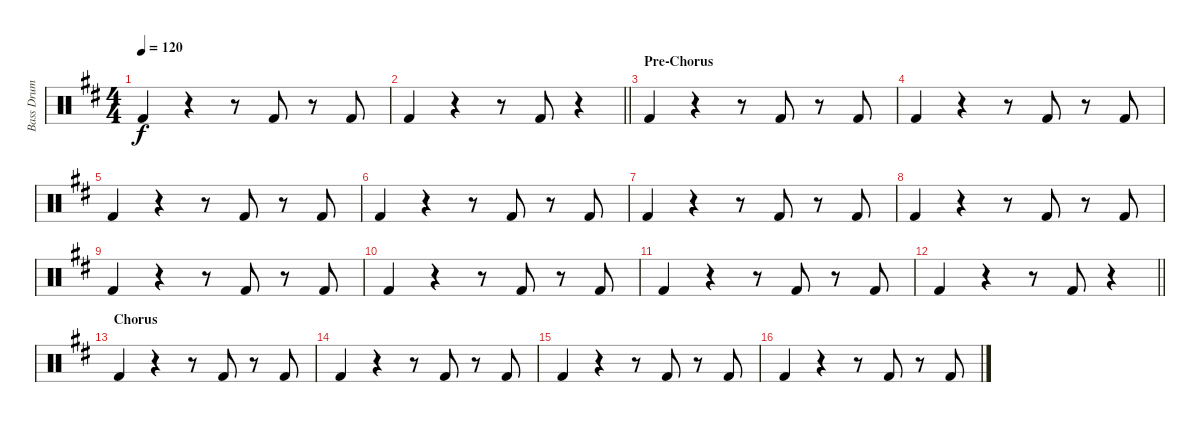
\track ("Bass Drum" "Bass Drum") {instrument percussion}
\staff {score}
\articulation defaults
\ts (4 4)
\tempo 120
\clef neutral
\ks d "Kick (hit) 2".4{dy f}
r.4 r.8 "Kick (hit) 2".8 r.8 "Kick (hit) 2".8 |
\barLineRight lightlight "Kick (hit) 2".4
r.4 r.8 "Kick (hit) 2".8 r.4 |
\section ("" "Pre-Chorus")
"Kick (hit) 2".4 r.4 r.8 "Kick (hit) 2".8 r.8 "Kick (hit) 2".8 |
"Kick (hit) 2".4 r.4 r.8 "Kick (hit) 2".8 r.8 "Kick (hit) 2".8 |
"Kick (hit) 2".4 r.4 r.8 "Kick (hit) 2".8 r.8 "Kick (hit) 2".8 |
"Kick (hit) 2".4 r.4 r.8 "Kick (hit) 2".8 r.8 "Kick (hit) 2".8 |
"Kick (hit) 2".4 r.4 r.8 "Kick (hit) 2".8 r.8 "Kick (hit) 2".8 |
"Kick (hit) 2".4 r.4 r.8 "Kick (hit) 2".8 r.8 "Kick (hit) 2".8 |
"Kick (hit) 2".4 r.4 r.8 "Kick (hit) 2".8 r.8 "Kick (hit) 2".8 |
"Kick (hit) 2".4 r.4 r.8 "Kick (hit) 2".8 r.8 "Kick (hit) 2".8 |
"Kick (hit) 2".4 r.4 r.8 "Kick (hit) 2".8 r.8 "Kick (hit) 2".8 |
\barLineRight lightlight "Kick (hit) 2".4
r.4 r.8 "Kick (hit) 2".8 r.4 |
\section ("" "Chorus")
"Kick (hit) 2".4 r.4 r.8 "Kick (hit) 2".8 r.8 "Kick (hit) 2".8 |
"Kick (hit) 2".4 r.4 r.8 "Kick (hit) 2".8 r.8 "Kick (hit) 2".8 |
"Kick (hit) 2".4 r.4 r.8 "Kick (hit) 2".8 r.8 "Kick (hit) 2".8 |
"Kick (hit) 2".4 r.4 r.8 "Kick (hit) 2".8 r.8 "Kick (hit) 2".8
